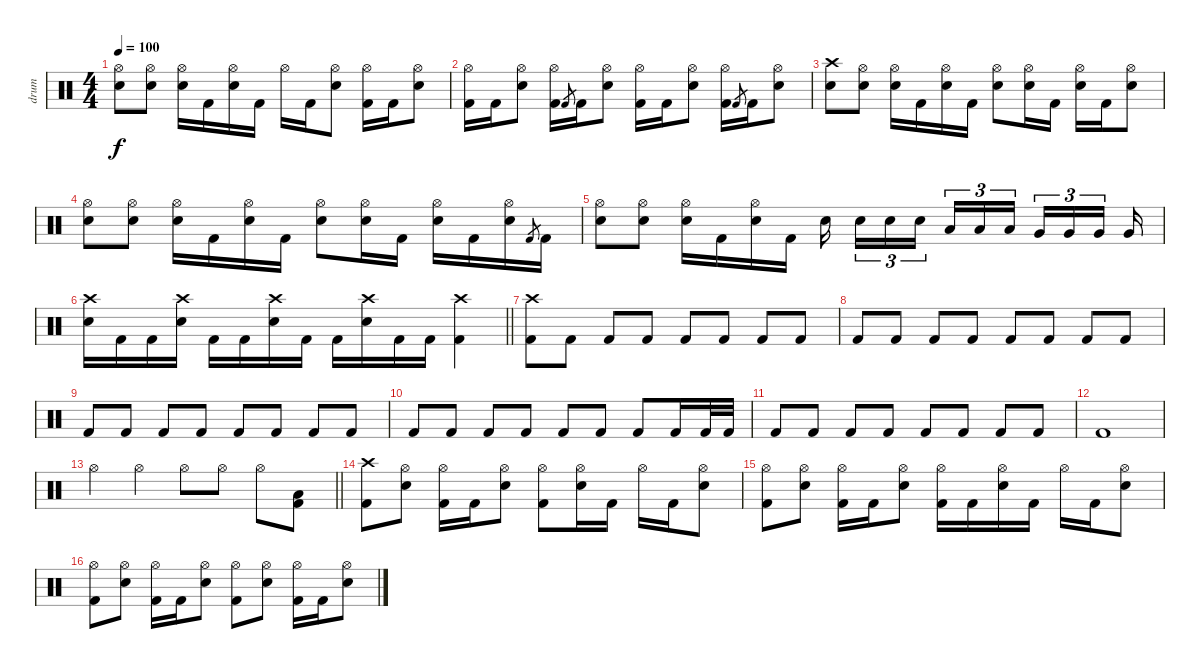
\track ("drum" "drum") {instrument percussion}
\staff {score}
\articulation defaults
\ts (4 4)
\tempo 100
\clef neutral
\ks c
("Hi-Hat (open)" "Electric Snare (hit)").8{dy f} ("Hi-Hat (open)" "Electric Snare (hit)").8 ("Hi-Hat (open)" "Electric Snare (hit)").16 "Kick (hit) 2".16 ("Hi-Hat (open)" "Electric Snare (hit)").16 "Kick (hit) 2".16 "Hi-Hat (open)".16 "Kick (hit) 2".16 ("Hi-Hat (open)" "Electric Snare (hit)").8 ("Hi-Hat (open)" "Kick (hit) 2").16 "Kick (hit) 2".16 ("Hi-Hat (open)" "Electric Snare (hit)").8 |
("Hi-Hat (open)" "Kick (hit) 2").16 "Kick (hit) 2".16 ("Hi-Hat (open)" "Electric Snare (hit)").8 ("Hi-Hat (open)" "Kick (hit) 2").16 "Kick (hit) 2".8{gr} "Kick (hit) 2".16 ("Hi-Hat (open)" "Electric Snare (hit)").8 ("Hi-Hat (open)" "Kick (hit) 2").16 "Kick (hit) 2".16 ("Hi-Hat (open)" "Electric Snare (hit)").8 ("Hi-Hat (open)" "Kick (hit) 2").16 "Kick (hit) 2".8{gr} "Kick (hit) 2".16 ("Hi-Hat (open)" "Electric Snare (hit)").8 |
("Crash high (hit)" "Electric Snare (hit)").8 ("Hi-Hat (open)" "Electric Snare (hit)").8 ("Hi-Hat (open)" "Electric Snare (hit)").16 "Kick (hit) 2".16 ("Hi-Hat (open)" "Electric Snare (hit)").16 "Kick (hit) 2".16 ("Hi-Hat (open)" "Electric Snare (hit)").8 ("Hi-Hat (open)" "Electric Snare (hit)").16 "Kick (hit) 2".16 ("Hi-Hat (open)" "Electric Snare (hit)").16 "Kick (hit) 2".16 ("Hi-Hat (open)" "Electric Snare (hit)").8 |
("Hi-Hat (open)" "Electric Snare (hit)").8 ("Hi-Hat (open)" "Electric Snare (hit)").8 ("Hi-Hat (open)" "Electric Snare (hit)").16 "Kick (hit) 2".16 ("Hi-Hat (open)" "Electric Snare (hit)").16 "Kick (hit) 2".16 ("Hi-Hat (open)" "Electric Snare (hit)").8 ("Hi-Hat (open)" "Electric Snare (hit)").16 "Kick (hit) 2".16 ("Hi-Hat (open)" "Electric Snare (hit)").16 "Kick (hit) 2".16 ("Hi-Hat (open)" "Electric Snare (hit)").16 "Kick (hit) 2".8{gr} "Kick (hit) 2".16 |
("Hi-Hat (open)" "Electric Snare (hit)").8 ("Hi-Hat (open)" "Electric Snare (hit)").8 ("Hi-Hat (open)" "Electric Snare (hit)").16 "Kick (hit) 2".16 ("Hi-Hat (open)" "Electric Snare (hit)").16 "Kick (hit) 2".16 "Electric Snare (hit)".16{beam splitsecondary} "Electric Snare (hit)".16{tu (3 2)} "Electric Snare (hit)".16{tu (3 2)} "Electric Snare (hit)".16{tu (3 2) beam splitsecondary} "Low Tom (hit)".16{tu (3 2)} "Low Tom (hit)".16{tu (3 2)} "Low Tom (hit)".16{tu (3 2) beam splitsecondary} "Very Low Tom (hit)".16{tu (3 2)} "Very Low Tom (hit)".16{tu (3 2)} "Very Low Tom (hit)".16{tu (3 2) beam splitsecondary} "Very Low Tom (hit)".16 |
\barLineRight lightlight
("Crash high (hit)" "Electric Snare (hit)").16 "Kick (hit) 2".16 "Kick (hit) 2".16 ("Crash high (hit)" "Electric Snare (hit)").16 "Kick (hit) 2".16 "Kick (hit) 2".16 ("Crash high (hit)" "Electric Snare (hit)").16 "Kick (hit) 2".16 "Kick (hit) 2".16 ("Crash high (hit)" "Electric Snare (hit)").16 "Kick (hit) 2".16 "Kick (hit) 2".16 ("Crash high (hit)" "Kick (hit) 2").4 |
("Crash high (hit)" "Kick (hit) 2").8 "Kick (hit) 2".8 "Kick (hit) 2".8 "Kick (hit) 2".8 "Kick (hit) 2".8 "Kick (hit) 2".8 "Kick (hit) 2".8 "Kick (hit) 2".8 |
"Kick (hit) 2".8 "Kick (hit) 2".8 "Kick (hit) 2".8 "Kick (hit) 2".8 "Kick (hit) 2".8 "Kick (hit) 2".8 "Kick (hit) 2".8 "Kick (hit) 2".8 |
"Kick (hit) 2".8 "Kick (hit) 2".8 "Kick (hit) 2".8 "Kick (hit) 2".8 "Kick (hit) 2".8 "Kick (hit) 2".8 "Kick (hit) 2".8 "Kick (hit) 2".8 |
"Kick (hit) 2".8 "Kick (hit) 2".8 "Kick (hit) 2".8 "Kick (hit) 2".8 "Kick (hit) 2".8 "Kick (hit) 2".8 "Kick (hit) 2".8 "Kick (hit) 2".16 "Kick (hit) 2".32 "Kick (hit) 2".32 |
"Kick (hit) 2".8 "Kick (hit) 2".8 "Kick (hit) 2".8 "Kick (hit) 2".8 "Kick (hit) 2".8 "Kick (hit) 2".8 "Kick (hit) 2".8 "Kick (hit) 2".8 |
"Kick (hit) 2".1 |
\barLineRight lightlight "Hi-Hat (open)".4 "Hi-Hat (open)".4 "Hi-Hat (open)".8 "Hi-Hat (open)".8 "Hi-Hat (open)".8
("Low Floor Tom (hit)" "Kick (hit) 2").8 |
("Crash high (hit)" "Kick (hit) 2").8 ("Hi-Hat (open)" "Electric Snare (hit)").8 ("Hi-Hat (open)" "Kick (hit) 2").16 "Kick (hit) 2".16 ("Hi-Hat (open)" "Electric Snare (hit)").8 ("Hi-Hat (open)" "Kick (hit) 2").8 ("Hi-Hat (open)" "Electric Snare (hit)").16 "Kick (hit) 2".16 "Hi-Hat (open)".16 "Kick (hit) 2".16 ("Hi-Hat (open)" "Electric Snare (hit)").8 |
("Hi-Hat (open)" "Kick (hit) 2").8 ("Hi-Hat (open)" "Electric Snare (hit)").8 ("Hi-Hat (open)" "Kick (hit) 2").16 "Kick (hit) 2".16 ("Hi-Hat (open)" "Electric Snare (hit)").8 ("Hi-Hat (open)" "Kick (hit) 2").16 "Kick (hit) 2".16 ("Hi-Hat (open)" "Electric Snare (hit)").16 "Kick (hit) 2".16 "Hi-Hat (open)".16 "Kick (hit) 2".16 ("Hi-Hat (open)" "Electric Snare (hit)").8 |
("Hi-Hat (open)" "Kick (hit) 2").8 ("Hi-Hat (open)" "Electric Snare (hit)").8 ("Hi-Hat (open)" "Kick (hit) 2").16 "Kick (hit) 2".16 ("Hi-Hat (open)" "Electric Snare (hit)").8 ("Hi-Hat (open)" "Kick (hit) 2").8 ("Hi-Hat (open)" "Electric Snare (hit)").8 ("Hi-Hat (open)" "Kick (hit) 2").16 "Kick (hit) 2".16 ("Hi-Hat (open)" "Electric Snare (hit)").8
